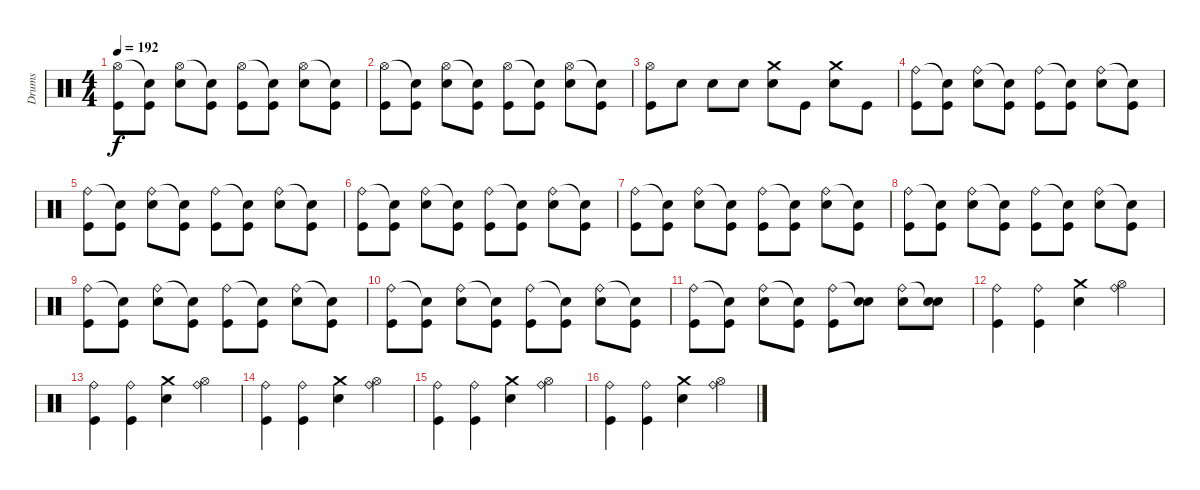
\track ("Drums" "Drums") {instrument percussion}
\staff {score}
\articulation defaults
\ts (4 4)
\tempo 192
\clef neutral
\ks c
("Kick (hit)" "Hi-Hat (open)").8{dy f} ("Kick (hit)" "Snare (hit)"{t}).8 ("Snare (hit) 2" "Hi-Hat (open)").8 ("Kick (hit)" "Snare (hit)"{t}).8 ("Kick (hit)" "Hi-Hat (open)").8 ("Kick (hit)" "Snare (hit)"{t}).8 ("Snare (hit) 2" "Hi-Hat (open)").8 ("Kick (hit)" "Snare (hit)"{t}).8 |
("Kick (hit)" "Hi-Hat (open)").8 ("Kick (hit)" "Snare (hit)"{t}).8 ("Snare (hit) 2" "Hi-Hat (open)").8 ("Kick (hit)" "Snare (hit)"{t}).8 ("Kick (hit)" "Hi-Hat (open)").8 ("Kick (hit)" "Snare (hit)"{t}).8 ("Snare (hit) 2" "Hi-Hat (open)").8 ("Kick (hit)" "Snare (hit)"{t}).8 |
("Kick (hit)" "Hi-Hat (open)").8 "Snare (hit) 2".8 "Snare (hit) 2".8 "Snare (hit) 2".8 ("Snare (hit) 2" "Crash medium (hit)").8 "Kick (hit)".8 ("Snare (hit) 2" "Crash medium (hit)").8 "Kick (hit)".8 |
("Kick (hit)" "Ride (bell)").8 ("Kick (hit)" "Snare (hit)"{t}).8 ("Snare (hit) 2" "Ride (bell)").8 ("Kick (hit)" "Snare (hit)"{t}).8 ("Kick (hit)" "Ride (bell)").8 ("Kick (hit)" "Snare (hit)"{t}).8 ("Snare (hit) 2" "Ride (bell)").8 ("Kick (hit)" "Snare (hit)"{t}).8 |
("Kick (hit)" "Ride (bell)").8 ("Kick (hit)" "Snare (hit)"{t}).8 ("Snare (hit) 2" "Ride (bell)").8 ("Kick (hit)" "Snare (hit)"{t}).8 ("Kick (hit)" "Ride (bell)").8 ("Kick (hit)" "Snare (hit)"{t}).8 ("Snare (hit) 2" "Ride (bell)").8 ("Kick (hit)" "Snare (hit)"{t}).8 |
("Kick (hit)" "Ride (bell)").8 ("Kick (hit)" "Snare (hit)"{t}).8 ("Snare (hit) 2" "Ride (bell)").8 ("Kick (hit)" "Snare (hit)"{t}).8 ("Kick (hit)" "Ride (bell)").8 ("Kick (hit)" "Snare (hit)"{t}).8 ("Snare (hit) 2" "Ride (bell)").8 ("Kick (hit)" "Snare (hit)"{t}).8 |
("Kick (hit)" "Ride (bell)").8 ("Kick (hit)" "Snare (hit)"{t}).8 ("Snare (hit) 2" "Ride (bell)").8 ("Kick (hit)" "Snare (hit)"{t}).8 ("Kick (hit)" "Ride (bell)").8 ("Kick (hit)" "Snare (hit)"{t}).8 ("Snare (hit) 2" "Ride (bell)").8 ("Kick (hit)" "Snare (hit)"{t}).8 |
("Kick (hit)" "Ride (bell)").8 ("Kick (hit)" "Snare (hit)"{t}).8 ("Snare (hit) 2" "Ride (bell)").8 ("Kick (hit)" "Snare (hit)"{t}).8 ("Kick (hit)" "Ride (bell)").8 ("Kick (hit)" "Snare (hit)"{t}).8 ("Snare (hit) 2" "Ride (bell)").8 ("Kick (hit)" "Snare (hit)"{t}).8 |
("Kick (hit)" "Ride (bell)").8 ("Kick (hit)" "Snare (hit)"{t}).8 ("Snare (hit) 2" "Ride (bell)").8 ("Kick (hit)" "Snare (hit)"{t}).8 ("Kick (hit)" "Ride (bell)").8 ("Kick (hit)" "Snare (hit)"{t}).8 ("Snare (hit) 2" "Ride (bell)").8 ("Kick (hit)" "Snare (hit)"{t}).8 |
("Kick (hit)" "Ride (bell)").8 ("Kick (hit)" "Snare (hit)"{t}).8 ("Snare (hit) 2" "Ride (bell)").8 ("Kick (hit)" "Snare (hit)"{t}).8 ("Kick (hit)" "Ride (bell)").8 ("Kick (hit)" "Snare (hit)"{t}).8 ("Snare (hit) 2" "Ride (bell)").8 ("Kick (hit)" "Snare (hit)"{t}).8 |
("Kick (hit)" "Ride (bell)").8 ("Kick (hit)" "Snare (hit)"{t}).8 ("Snare (hit) 2" "Ride (bell)").8 ("Kick (hit)" "Snare (hit)"{t}).8 ("Kick (hit)" "Ride (bell)").8 ("Snare (hit) 2" "Snare (hit)"{t}).8 ("Snare (hit) 2" "Ride (bell)").8 ("Snare (hit) 2" "Snare (hit)"{t}).8 |
("Kick (hit)" "Ride (bell)").4 ("Kick (hit)" "Ride (bell)").4 ("Snare (hit) 2" "Crash medium (hit)").4 ("Hi-Hat (open)" "Ride (bell)").4 |
("Kick (hit)" "Ride (bell)").4 ("Kick (hit)" "Ride (bell)").4 ("Snare (hit) 2" "Crash medium (hit)").4 ("Hi-Hat (open)" "Ride (bell)").4 |
("Kick (hit)" "Ride (bell)").4 ("Kick (hit)" "Ride (bell)").4 ("Snare (hit) 2" "Crash medium (hit)").4 ("Hi-Hat (open)" "Ride (bell)").4 |
("Kick (hit)" "Ride (bell)").4 ("Kick (hit)" "Ride (bell)").4 ("Snare (hit) 2" "Crash medium (hit)").4 ("Hi-Hat (open)" "Ride (bell)").4 |
("Kick (hit)" "Ride (bell)").4 ("Kick (hit)" "Ride (bell)").4 ("Snare (hit) 2" "Crash medium (hit)").4 ("Hi-Hat (open)" "Ride (bell)").4
